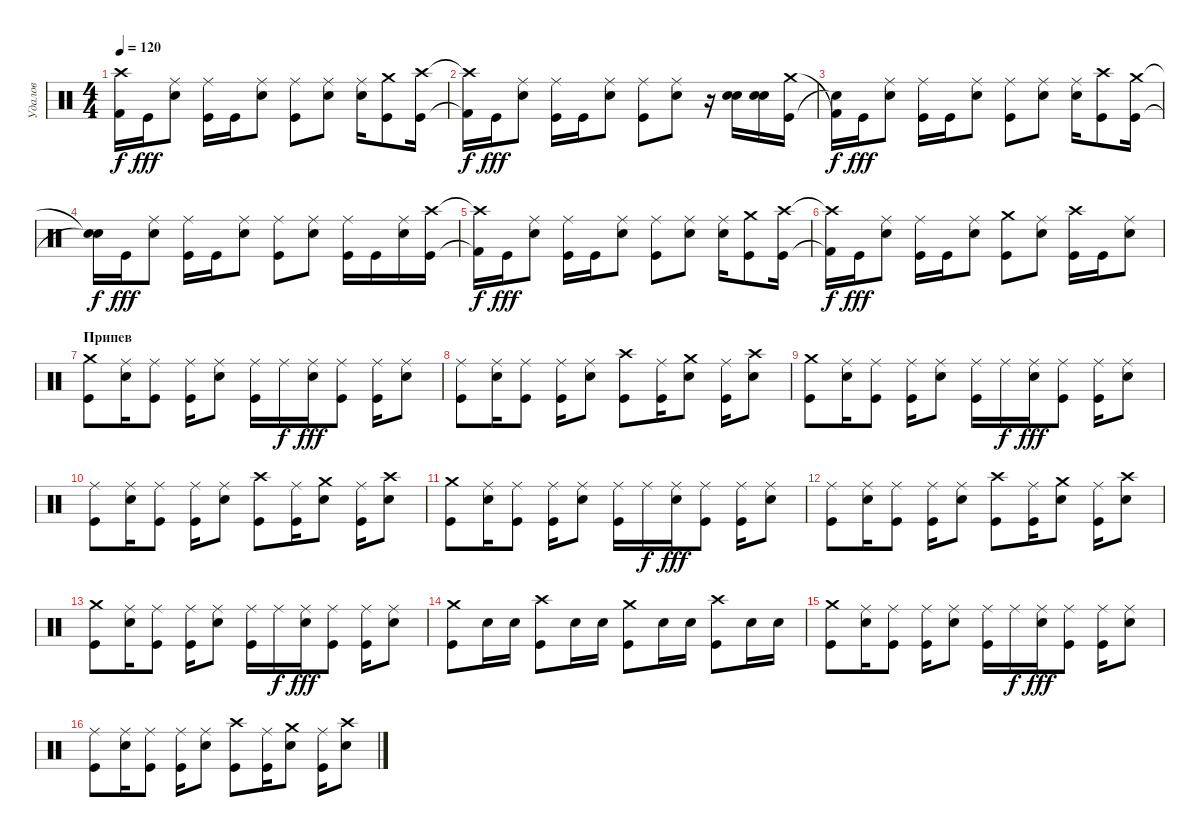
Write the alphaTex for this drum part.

\track ("Удалов " "Удалов ") {instrument percussion}
\staff {score}
\articulation defaults
\ts (4 4)
\tempo 120
\clef neutral
\ks c
("Crash high (hit)"{t} "Kick (hit) 2"{t}).16{dy f} "Kick (hit)".16{dy fff} ("Snare (hit) 2" "Ride (middle)").8 ("Kick (hit)" "Ride (middle)").16 "Kick (hit)".16 ("Snare (hit) 2" "Ride (middle)").8 ("Kick (hit)" "Ride (middle)").8 ("Ride (middle)" "Snare (hit) 2").8 ("Snare (hit) 2" "Ride (middle)").16 ("Kick (hit)" "Crash medium (hit)").8 ("Crash high (hit)" "Kick (hit)").16 |
("Crash high (hit)"{t} "Kick (hit) 2"{t}).16{dy f} "Kick (hit)".16{dy fff} ("Snare (hit) 2" "Ride (middle)").8 ("Kick (hit)" "Ride (middle)").16 "Kick (hit)".16 ("Snare (hit) 2" "Ride (middle)").8 ("Kick (hit)" "Ride (middle)").8 ("Ride (middle)" "Snare (hit) 2").8 r.16 ("Snare (hit) 2" "Snare (hit) 2").16 ("Snare (hit) 2" "Snare (hit) 2").16 ("Crash medium (hit)" "Kick (hit)").16 |
("Kick (hit) 2"{t} "Snare (hit)"{t}).16{dy f} "Kick (hit)".16{dy fff} ("Snare (hit) 2" "Ride (middle)").8 ("Kick (hit)" "Ride (middle)").16 "Kick (hit)".16 ("Snare (hit) 2" "Ride (middle)").8 ("Kick (hit)" "Ride (middle)").8 ("Snare (hit) 2" "Ride (middle)").8 ("Snare (hit) 2" "Ride (middle)").16 ("Kick (hit)" "Crash high (hit)").8 ("Kick (hit)" "Crash medium (hit)").16 |
("Snare (hit) 2"{t} "Snare (hit)"{t}).16{dy f} "Kick (hit)".16{dy fff} ("Snare (hit) 2" "Ride (middle)").8 ("Kick (hit)" "Ride (middle)").16 "Kick (hit)".16 ("Snare (hit) 2" "Ride (middle)").8 ("Kick (hit)" "Ride (middle)").8 ("Snare (hit) 2" "Ride (middle)").8 ("Kick (hit)" "Ride (middle)").16 "Kick (hit)".16 ("Snare (hit) 2" "Ride (middle)").16 ("Crash high (hit)" "Kick (hit)").16 |
("Crash high (hit)"{t} "Kick (hit) 2"{t}).16{dy f} "Kick (hit)".16{dy fff} ("Snare (hit) 2" "Ride (middle)").8 ("Kick (hit)" "Ride (middle)").16 "Kick (hit)".16 ("Snare (hit) 2" "Ride (middle)").8 ("Kick (hit)" "Ride (middle)").8 ("Ride (middle)" "Snare (hit) 2").8 ("Snare (hit) 2" "Ride (middle)").16 ("Kick (hit)" "Crash medium (hit)").8 ("Crash high (hit)" "Kick (hit)").16 |
("Crash high (hit)"{t} "Kick (hit) 2"{t}).16{dy f} "Kick (hit)".16{dy fff} ("Snare (hit) 2" "Ride (middle)").8 ("Kick (hit)" "Ride (middle)").16 "Kick (hit)".16 ("Snare (hit) 2" "Ride (middle)").8 ("Kick (hit)" "Crash medium (hit)").8 ("Ride (middle)" "Snare (hit) 2").8 ("Kick (hit)" "Crash high (hit)").16 "Kick (hit)".16 ("Snare (hit) 2" "Ride (middle)").8 |
\section ("" "Припев")
("Kick (hit)" "Crash medium (hit)").8 ("Snare (hit) 2" "Ride (middle)").16 ("Kick (hit)" "Ride (middle)").8 ("Kick (hit)" "Ride (middle)").16 ("Snare (hit) 2" "Ride (middle)").8 ("Kick (hit)" "Ride (middle)").16 "Ride (middle)".16{dy f} ("Snare (hit) 2" "Ride (middle)").16{dy fff} ("Kick (hit)" "Ride (middle)").8 ("Kick (hit)" "Ride (middle)").16 ("Snare (hit) 2" "Ride (middle)").8 |
("Kick (hit)" "Ride (middle)").8 ("Snare (hit) 2" "Ride (middle)").16 ("Kick (hit)" "Ride (middle)").8 ("Ride (middle)" "Kick (hit)").16 ("Ride (middle)" "Snare (hit) 2").8 ("Crash high (hit)" "Kick (hit)").8 ("Ride (middle)" "Kick (hit)").16 ("Crash medium (hit)" "Snare (hit) 2").8 ("Ride (middle)" "Kick (hit)").16 ("Crash high (hit)" "Snare (hit) 2").8 |
("Kick (hit)" "Crash medium (hit)").8 ("Snare (hit) 2" "Ride (middle)").16 ("Kick (hit)" "Ride (middle)").8 ("Kick (hit)" "Ride (middle)").16 ("Snare (hit) 2" "Ride (middle)").8 ("Kick (hit)" "Ride (middle)").16 "Ride (middle)".16{dy f} ("Snare (hit) 2" "Ride (middle)").16{dy fff} ("Kick (hit)" "Ride (middle)").8 ("Kick (hit)" "Ride (middle)").16 ("Snare (hit) 2" "Ride (middle)").8 |
("Kick (hit)" "Ride (middle)").8 ("Snare (hit) 2" "Ride (middle)").16 ("Kick (hit)" "Ride (middle)").8 ("Ride (middle)" "Kick (hit)").16 ("Ride (middle)" "Snare (hit) 2").8 ("Crash high (hit)" "Kick (hit)").8 ("Ride (middle)" "Kick (hit)").16 ("Crash medium (hit)" "Snare (hit) 2").8 ("Ride (middle)" "Kick (hit)").16 ("Crash high (hit)" "Snare (hit) 2").8 |
("Kick (hit)" "Crash medium (hit)").8 ("Snare (hit) 2" "Ride (middle)").16 ("Kick (hit)" "Ride (middle)").8 ("Kick (hit)" "Ride (middle)").16 ("Snare (hit) 2" "Ride (middle)").8 ("Kick (hit)" "Ride (middle)").16 "Ride (middle)".16{dy f} ("Snare (hit) 2" "Ride (middle)").16{dy fff} ("Kick (hit)" "Ride (middle)").8 ("Kick (hit)" "Ride (middle)").16 ("Snare (hit) 2" "Ride (middle)").8 |
("Kick (hit)" "Ride (middle)").8 ("Snare (hit) 2" "Ride (middle)").16 ("Kick (hit)" "Ride (middle)").8 ("Ride (middle)" "Kick (hit)").16 ("Ride (middle)" "Snare (hit) 2").8 ("Crash high (hit)" "Kick (hit)").8 ("Ride (middle)" "Kick (hit)").16 ("Crash medium (hit)" "Snare (hit) 2").8 ("Ride (middle)" "Kick (hit)").16 ("Crash high (hit)" "Snare (hit) 2").8 |
("Kick (hit)" "Crash medium (hit)").8 ("Snare (hit) 2" "Ride (middle)").16 ("Kick (hit)" "Ride (middle)").8 ("Kick (hit)" "Ride (middle)").16 ("Snare (hit) 2" "Ride (middle)").8 ("Kick (hit)" "Ride (middle)").16 "Ride (middle)".16{dy f} ("Snare (hit) 2" "Ride (middle)").16{dy fff} ("Kick (hit)" "Ride (middle)").8 ("Kick (hit)" "Ride (middle)").16 ("Snare (hit) 2" "Ride (middle)").8 |
("Kick (hit)" "Crash medium (hit)").8 "Electric Snare (hit)".16 "Electric Snare (hit)".16 ("Kick (hit)" "Crash high (hit)").8 "Electric Snare (hit)".16 "Electric Snare (hit)".16 ("Kick (hit)" "Crash medium (hit)").8 "Electric Snare (hit)".16 "Electric Snare (hit)".16 ("Kick (hit)" "Crash high (hit)").8 "Electric Snare (hit)".16 "Electric Snare (hit)".16 |
("Kick (hit)" "Crash medium (hit)").8 ("Snare (hit) 2" "Ride (middle)").16 ("Kick (hit)" "Ride (middle)").8 ("Kick (hit)" "Ride (middle)").16 ("Snare (hit) 2" "Ride (middle)").8 ("Kick (hit)" "Ride (middle)").16 "Ride (middle)".16{dy f} ("Snare (hit) 2" "Ride (middle)").16{dy fff} ("Kick (hit)" "Ride (middle)").8 ("Kick (hit)" "Ride (middle)").16 ("Snare (hit) 2" "Ride (middle)").8 |
("Kick (hit)" "Ride (middle)").8 ("Snare (hit) 2" "Ride (middle)").16 ("Kick (hit)" "Ride (middle)").8 ("Ride (middle)" "Kick (hit)").16 ("Ride (middle)" "Snare (hit) 2").8 ("Crash high (hit)" "Kick (hit)").8 ("Ride (middle)" "Kick (hit)").16 ("Crash medium (hit)" "Snare (hit) 2").8 ("Ride (middle)" "Kick (hit)").16 ("Crash high (hit)" "Snare (hit) 2").8
